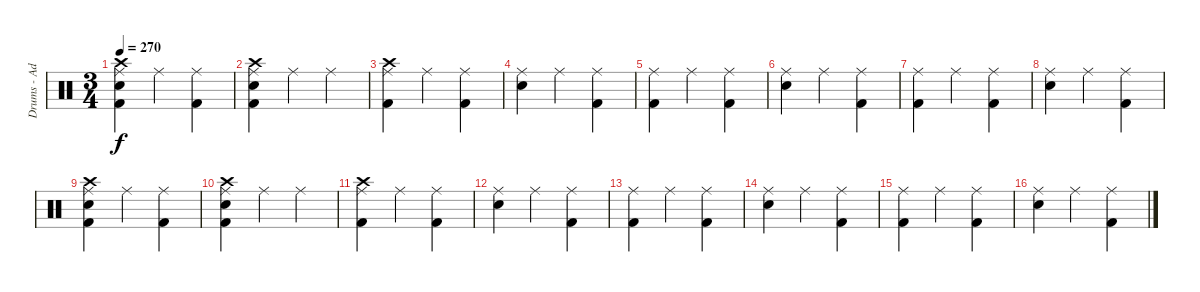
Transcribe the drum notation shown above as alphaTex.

\track ("Drums - Adam" "Drums - Ad") {instrument percussion}
\staff {score}
\articulation defaults
\ts (3 4)
\tempo 270
\clef neutral
\ks c
("Ride (middle)" "Kick (hit) 2" "Electric Snare (hit)" "Crash high (hit)").4{dy f} "Ride (middle)".4 ("Ride (middle)" "Kick (hit) 2").4 |
("Ride (middle)" "Kick (hit) 2" "Electric Snare (hit)" "Crash high (hit)").4 "Ride (middle)".4 "Ride (middle)".4 |
("Ride (middle)" "Kick (hit) 2" "Crash high (hit)").4 "Ride (middle)".4 ("Ride (middle)" "Kick (hit) 2").4 |
("Ride (middle)" "Electric Snare (hit)").4 "Ride (middle)".4 ("Ride (middle)" "Kick (hit) 2").4 |
("Ride (middle)" "Kick (hit) 2").4 "Ride (middle)".4 ("Ride (middle)" "Kick (hit) 2").4 |
("Ride (middle)" "Electric Snare (hit)").4 "Ride (middle)".4 ("Ride (middle)" "Kick (hit) 2").4 |
("Ride (middle)" "Kick (hit) 2").4 "Ride (middle)".4 ("Ride (middle)" "Kick (hit) 2").4 |
("Ride (middle)" "Electric Snare (hit)").4 "Ride (middle)".4 ("Ride (middle)" "Kick (hit) 2").4 |
("Ride (middle)" "Kick (hit) 2" "Electric Snare (hit)" "Crash high (hit)").4 "Ride (middle)".4 ("Ride (middle)" "Kick (hit) 2").4 |
("Ride (middle)" "Kick (hit) 2" "Electric Snare (hit)" "Crash high (hit)").4 "Ride (middle)".4 "Ride (middle)".4 |
("Ride (middle)" "Kick (hit) 2" "Crash high (hit)").4 "Ride (middle)".4 ("Ride (middle)" "Kick (hit) 2").4 |
("Ride (middle)" "Electric Snare (hit)").4 "Ride (middle)".4 ("Ride (middle)" "Kick (hit) 2").4 |
("Ride (middle)" "Kick (hit) 2").4 "Ride (middle)".4 ("Ride (middle)" "Kick (hit) 2").4 |
("Ride (middle)" "Electric Snare (hit)").4 "Ride (middle)".4 ("Ride (middle)" "Kick (hit) 2").4 |
("Ride (middle)" "Kick (hit) 2").4 "Ride (middle)".4 ("Ride (middle)" "Kick (hit) 2").4 |
("Ride (middle)" "Electric Snare (hit)").4 "Ride (middle)".4 ("Ride (middle)" "Kick (hit) 2").4
